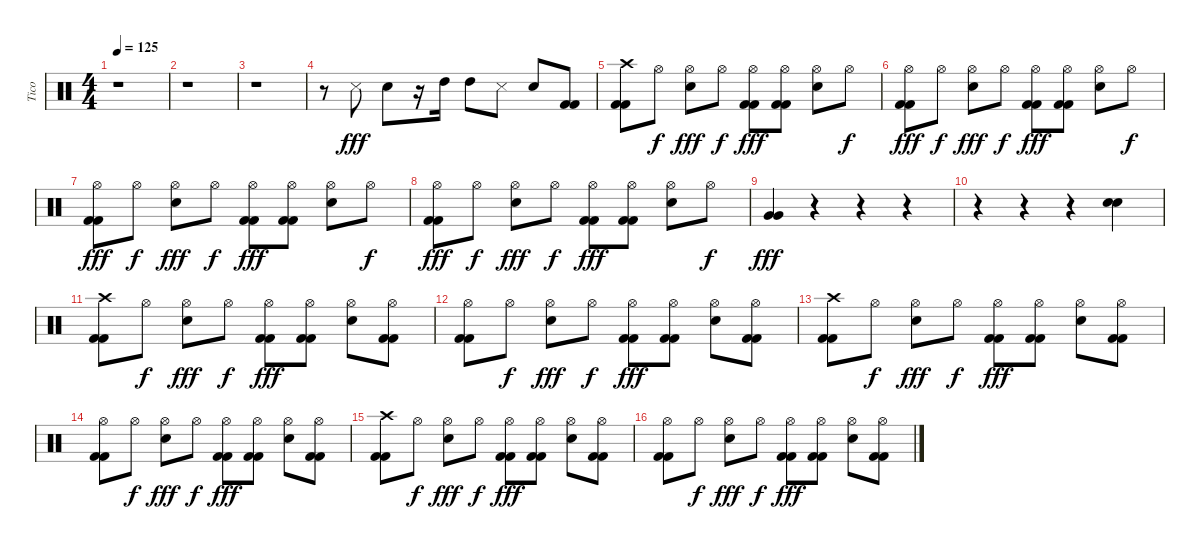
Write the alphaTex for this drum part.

\track ("Tico" "Tico") {instrument percussion}
\staff {score}
\articulation defaults
\ts (4 4)
\tempo 125
\clef neutral
\ks c
r.1{dy fff} |
r.1 |
r.1 |
r.8 "Snare (side stick) 3".8 "Snare (hit) 2".8 r.16 "High Tom (hit)".16 "High Tom (hit)".8 "Snare (side stick) 3".8 "Snare (hit) 2".8 ("Kick (hit) 2" "Kick (hit) 2").8 |
("Crash high (hit)" "Kick (hit) 2" "Kick (hit) 2").8 "Hi-Hat (open)".8{dy f} ("Hi-Hat (open)" "Snare (hit) 2").8{dy fff} "Hi-Hat (open)".8{dy f} ("Hi-Hat (open)" "Kick (hit) 2" "Kick (hit) 2").8{dy fff} ("Hi-Hat (open)" "Kick (hit) 2" "Kick (hit) 2").8 ("Hi-Hat (open)" "Snare (hit) 2").8 "Hi-Hat (open)".8{dy f} |
("Hi-Hat (open)" "Kick (hit) 2" "Kick (hit) 2").8{dy fff} "Hi-Hat (open)".8{dy f} ("Hi-Hat (open)" "Snare (hit) 2").8{dy fff} "Hi-Hat (open)".8{dy f} ("Hi-Hat (open)" "Kick (hit) 2" "Kick (hit) 2").8{dy fff} ("Hi-Hat (open)" "Kick (hit) 2" "Kick (hit) 2").8 ("Hi-Hat (open)" "Snare (hit) 2").8 "Hi-Hat (open)".8{dy f} |
("Hi-Hat (open)" "Kick (hit) 2" "Kick (hit) 2").8{dy fff} "Hi-Hat (open)".8{dy f} ("Hi-Hat (open)" "Snare (hit) 2").8{dy fff} "Hi-Hat (open)".8{dy f} ("Hi-Hat (open)" "Kick (hit) 2" "Kick (hit) 2").8{dy fff} ("Hi-Hat (open)" "Kick (hit) 2" "Kick (hit) 2").8 ("Hi-Hat (open)" "Snare (hit) 2").8 "Hi-Hat (open)".8{dy f} |
("Hi-Hat (open)" "Kick (hit) 2" "Kick (hit) 2").8{dy fff} "Hi-Hat (open)".8{dy f} ("Hi-Hat (open)" "Snare (hit) 2").8{dy fff} "Hi-Hat (open)".8{dy f} ("Hi-Hat (open)" "Kick (hit) 2" "Kick (hit) 2").8{dy fff} ("Hi-Hat (open)" "Kick (hit) 2" "Kick (hit) 2").8 ("Hi-Hat (open)" "Snare (hit) 2").8 "Hi-Hat (open)".8{dy f} |
("Very Low Tom (hit)" "Very Low Tom (hit)").4{dy fff} r.4 r.4 r.4 |
r.4 r.4 r.4 ("Snare (hit) 2" "Snare (hit) 2").4 |
("Crash high (hit)" "Kick (hit) 2" "Kick (hit) 2").8 "Hi-Hat (open)".8{dy f} ("Hi-Hat (open)" "Snare (hit) 2").8{dy fff} "Hi-Hat (open)".8{dy f} ("Hi-Hat (open)" "Kick (hit) 2" "Kick (hit) 2").8{dy fff} ("Hi-Hat (open)" "Kick (hit) 2" "Kick (hit) 2").8 ("Hi-Hat (open)" "Snare (hit) 2").8 ("Hi-Hat (open)" "Kick (hit) 2" "Kick (hit) 2").8 |
("Hi-Hat (open)" "Kick (hit) 2" "Kick (hit) 2").8 "Hi-Hat (open)".8{dy f} ("Hi-Hat (open)" "Snare (hit) 2").8{dy fff} "Hi-Hat (open)".8{dy f} ("Hi-Hat (open)" "Kick (hit) 2" "Kick (hit) 2").8{dy fff} ("Hi-Hat (open)" "Kick (hit) 2" "Kick (hit) 2").8 ("Hi-Hat (open)" "Snare (hit) 2").8 ("Hi-Hat (open)" "Kick (hit) 2" "Kick (hit) 2").8 |
("Crash high (hit)" "Kick (hit) 2" "Kick (hit) 2").8 "Hi-Hat (open)".8{dy f} ("Hi-Hat (open)" "Snare (hit) 2").8{dy fff} "Hi-Hat (open)".8{dy f} ("Hi-Hat (open)" "Kick (hit) 2" "Kick (hit) 2").8{dy fff} ("Hi-Hat (open)" "Kick (hit) 2" "Kick (hit) 2").8 ("Hi-Hat (open)" "Snare (hit) 2").8 ("Hi-Hat (open)" "Kick (hit) 2" "Kick (hit) 2").8 |
("Hi-Hat (open)" "Kick (hit) 2" "Kick (hit) 2").8 "Hi-Hat (open)".8{dy f} ("Hi-Hat (open)" "Snare (hit) 2").8{dy fff} "Hi-Hat (open)".8{dy f} ("Hi-Hat (open)" "Kick (hit) 2" "Kick (hit) 2").8{dy fff} ("Hi-Hat (open)" "Kick (hit) 2" "Kick (hit) 2").8 ("Hi-Hat (open)" "Snare (hit) 2").8 ("Hi-Hat (open)" "Kick (hit) 2" "Kick (hit) 2").8 |
("Crash high (hit)" "Kick (hit) 2" "Kick (hit) 2").8 "Hi-Hat (open)".8{dy f} ("Hi-Hat (open)" "Snare (hit) 2").8{dy fff} "Hi-Hat (open)".8{dy f} ("Hi-Hat (open)" "Kick (hit) 2" "Kick (hit) 2").8{dy fff} ("Hi-Hat (open)" "Kick (hit) 2" "Kick (hit) 2").8 ("Hi-Hat (open)" "Snare (hit) 2").8 ("Hi-Hat (open)" "Kick (hit) 2" "Kick (hit) 2").8 |
("Hi-Hat (open)" "Kick (hit) 2" "Kick (hit) 2").8 "Hi-Hat (open)".8{dy f} ("Hi-Hat (open)" "Snare (hit) 2").8{dy fff} "Hi-Hat (open)".8{dy f} ("Hi-Hat (open)" "Kick (hit) 2" "Kick (hit) 2").8{dy fff} ("Hi-Hat (open)" "Kick (hit) 2" "Kick (hit) 2").8 ("Hi-Hat (open)" "Snare (hit) 2").8 ("Hi-Hat (open)" "Kick (hit) 2" "Kick (hit) 2").8
